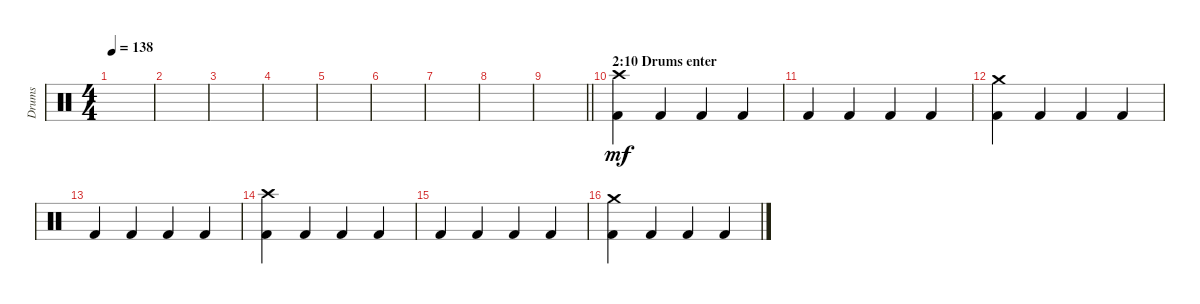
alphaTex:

\track ("Drums" "Drums") {instrument percussion}
\staff {score}
\articulation defaults
\ts (4 4)
\tempo 138
\clef neutral
\ks c
|
|
|
|
|
|
|
|
\barLineRight lightlight
|
\section ("" "2:10 Drums enter")
("Crash high (hit)" "Kick (hit) 2").4{dy mf} "Kick (hit) 2".4 "Kick (hit) 2".4 "Kick (hit) 2".4 |
"Kick (hit) 2".4 "Kick (hit) 2".4 "Kick (hit) 2".4 "Kick (hit) 2".4 |
("Crash medium (hit)" "Kick (hit) 2").4 "Kick (hit) 2".4 "Kick (hit) 2".4 "Kick (hit) 2".4 |
"Kick (hit) 2".4 "Kick (hit) 2".4 "Kick (hit) 2".4 "Kick (hit) 2".4 |
("Crash high (hit)" "Kick (hit) 2").4 "Kick (hit) 2".4 "Kick (hit) 2".4 "Kick (hit) 2".4 |
"Kick (hit) 2".4 "Kick (hit) 2".4 "Kick (hit) 2".4 "Kick (hit) 2".4 |
("Crash medium (hit)" "Kick (hit) 2").4 "Kick (hit) 2".4 "Kick (hit) 2".4 "Kick (hit) 2".4
